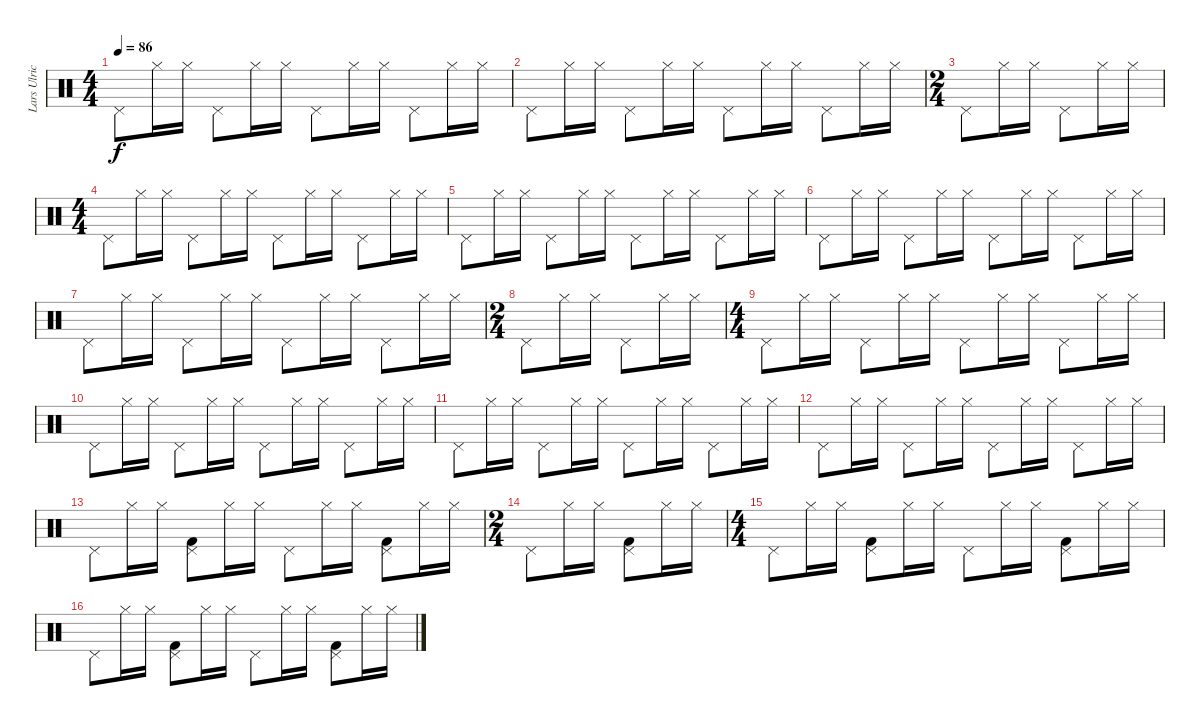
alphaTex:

\track ("Lars Ulrich" "Lars Ulric") {instrument percussion}
\staff {score}
\articulation defaults
\ts (4 4)
\tempo 86
\clef neutral
\ks c "Pedal Hi-Hat (hit)".8{dy f} "Hi-Hat (closed)".16 "Hi-Hat (closed)".16 "Pedal Hi-Hat (hit)".8 "Hi-Hat (closed)".16 "Hi-Hat (closed)".16 "Pedal Hi-Hat (hit)".8 "Hi-Hat (closed)".16 "Hi-Hat (closed)".16 "Pedal Hi-Hat (hit)".8 "Hi-Hat (closed)".16 "Hi-Hat (closed)".16
|
"Pedal Hi-Hat (hit)".8 "Hi-Hat (closed)".16 "Hi-Hat (closed)".16 "Pedal Hi-Hat (hit)".8 "Hi-Hat (closed)".16 "Hi-Hat (closed)".16 "Pedal Hi-Hat (hit)".8 "Hi-Hat (closed)".16 "Hi-Hat (closed)".16 "Pedal Hi-Hat (hit)".8 "Hi-Hat (closed)".16 "Hi-Hat (closed)".16 |
\ts (2 4)
"Pedal Hi-Hat (hit)".8 "Hi-Hat (closed)".16 "Hi-Hat (closed)".16 "Pedal Hi-Hat (hit)".8 "Hi-Hat (closed)".16 "Hi-Hat (closed)".16 |
\ts (4 4)
"Pedal Hi-Hat (hit)".8 "Hi-Hat (closed)".16 "Hi-Hat (closed)".16 "Pedal Hi-Hat (hit)".8 "Hi-Hat (closed)".16 "Hi-Hat (closed)".16 "Pedal Hi-Hat (hit)".8 "Hi-Hat (closed)".16 "Hi-Hat (closed)".16 "Pedal Hi-Hat (hit)".8 "Hi-Hat (closed)".16 "Hi-Hat (closed)".16 |
"Pedal Hi-Hat (hit)".8 "Hi-Hat (closed)".16 "Hi-Hat (closed)".16 "Pedal Hi-Hat (hit)".8 "Hi-Hat (closed)".16 "Hi-Hat (closed)".16 "Pedal Hi-Hat (hit)".8 "Hi-Hat (closed)".16 "Hi-Hat (closed)".16 "Pedal Hi-Hat (hit)".8 "Hi-Hat (closed)".16 "Hi-Hat (closed)".16 |
"Pedal Hi-Hat (hit)".8 "Hi-Hat (closed)".16 "Hi-Hat (closed)".16 "Pedal Hi-Hat (hit)".8 "Hi-Hat (closed)".16 "Hi-Hat (closed)".16 "Pedal Hi-Hat (hit)".8 "Hi-Hat (closed)".16 "Hi-Hat (closed)".16 "Pedal Hi-Hat (hit)".8 "Hi-Hat (closed)".16 "Hi-Hat (closed)".16 |
"Pedal Hi-Hat (hit)".8 "Hi-Hat (closed)".16 "Hi-Hat (closed)".16 "Pedal Hi-Hat (hit)".8 "Hi-Hat (closed)".16 "Hi-Hat (closed)".16 "Pedal Hi-Hat (hit)".8 "Hi-Hat (closed)".16 "Hi-Hat (closed)".16 "Pedal Hi-Hat (hit)".8 "Hi-Hat (closed)".16 "Hi-Hat (closed)".16 |
\ts (2 4)
"Pedal Hi-Hat (hit)".8 "Hi-Hat (closed)".16 "Hi-Hat (closed)".16 "Pedal Hi-Hat (hit)".8 "Hi-Hat (closed)".16 "Hi-Hat (closed)".16 |
\ts (4 4)
"Pedal Hi-Hat (hit)".8 "Hi-Hat (closed)".16 "Hi-Hat (closed)".16 "Pedal Hi-Hat (hit)".8 "Hi-Hat (closed)".16 "Hi-Hat (closed)".16 "Pedal Hi-Hat (hit)".8 "Hi-Hat (closed)".16 "Hi-Hat (closed)".16 "Pedal Hi-Hat (hit)".8 "Hi-Hat (closed)".16 "Hi-Hat (closed)".16 |
"Pedal Hi-Hat (hit)".8 "Hi-Hat (closed)".16 "Hi-Hat (closed)".16 "Pedal Hi-Hat (hit)".8 "Hi-Hat (closed)".16 "Hi-Hat (closed)".16 "Pedal Hi-Hat (hit)".8 "Hi-Hat (closed)".16 "Hi-Hat (closed)".16 "Pedal Hi-Hat (hit)".8 "Hi-Hat (closed)".16 "Hi-Hat (closed)".16 |
"Pedal Hi-Hat (hit)".8 "Hi-Hat (closed)".16 "Hi-Hat (closed)".16 "Pedal Hi-Hat (hit)".8 "Hi-Hat (closed)".16 "Hi-Hat (closed)".16 "Pedal Hi-Hat (hit)".8 "Hi-Hat (closed)".16 "Hi-Hat (closed)".16 "Pedal Hi-Hat (hit)".8 "Hi-Hat (closed)".16 "Hi-Hat (closed)".16 |
"Pedal Hi-Hat (hit)".8 "Hi-Hat (closed)".16 "Hi-Hat (closed)".16 "Pedal Hi-Hat (hit)".8 "Hi-Hat (closed)".16 "Hi-Hat (closed)".16 "Pedal Hi-Hat (hit)".8 "Hi-Hat (closed)".16 "Hi-Hat (closed)".16 "Pedal Hi-Hat (hit)".8 "Hi-Hat (closed)".16 "Hi-Hat (closed)".16 |
"Pedal Hi-Hat (hit)".8 "Hi-Hat (closed)".16 "Hi-Hat (closed)".16 ("Pedal Hi-Hat (hit)" "Kick (hit) 2").8 "Hi-Hat (closed)".16 "Hi-Hat (closed)".16 "Pedal Hi-Hat (hit)".8 "Hi-Hat (closed)".16 "Hi-Hat (closed)".16 ("Pedal Hi-Hat (hit)" "Kick (hit) 2").8 "Hi-Hat (closed)".16 "Hi-Hat (closed)".16 |
\ts (2 4)
"Pedal Hi-Hat (hit)".8 "Hi-Hat (closed)".16 "Hi-Hat (closed)".16 ("Pedal Hi-Hat (hit)" "Kick (hit) 2").8 "Hi-Hat (closed)".16 "Hi-Hat (closed)".16 |
\ts (4 4)
"Pedal Hi-Hat (hit)".8 "Hi-Hat (closed)".16 "Hi-Hat (closed)".16 ("Pedal Hi-Hat (hit)" "Kick (hit) 2").8 "Hi-Hat (closed)".16 "Hi-Hat (closed)".16 "Pedal Hi-Hat (hit)".8 "Hi-Hat (closed)".16 "Hi-Hat (closed)".16 ("Pedal Hi-Hat (hit)" "Kick (hit) 2").8 "Hi-Hat (closed)".16 "Hi-Hat (closed)".16 |
"Pedal Hi-Hat (hit)".8 "Hi-Hat (closed)".16 "Hi-Hat (closed)".16 ("Pedal Hi-Hat (hit)" "Kick (hit) 2").8 "Hi-Hat (closed)".16 "Hi-Hat (closed)".16 "Pedal Hi-Hat (hit)".8 "Hi-Hat (closed)".16 "Hi-Hat (closed)".16 ("Pedal Hi-Hat (hit)" "Kick (hit) 2").8 "Hi-Hat (closed)".16 "Hi-Hat (closed)".16
